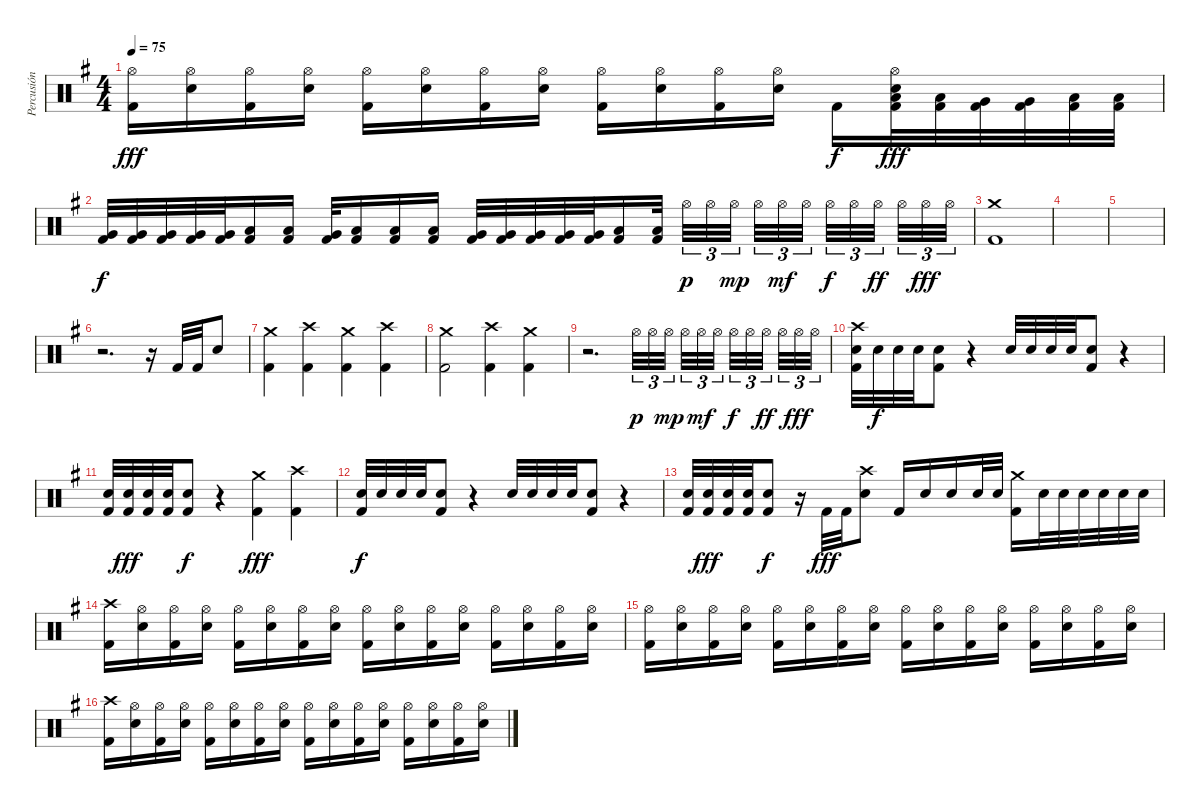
\track ("Percusión" "Percusión") {instrument percussion}
\staff {score}
\articulation defaults
\ts (4 4)
\tempo 75
\clef neutral
\ks g
("Hi-Hat (open)" "Kick (hit) 2").16{dy fff} ("Hi-Hat (open)" "Electric Snare (hit)").16 ("Hi-Hat (open)" "Kick (hit) 2").16 ("Hi-Hat (open)" "Electric Snare (hit)").16 ("Hi-Hat (open)" "Kick (hit) 2").16 ("Hi-Hat (open)" "Electric Snare (hit)").16 ("Hi-Hat (open)" "Kick (hit) 2").16 ("Hi-Hat (open)" "Electric Snare (hit)").16 ("Hi-Hat (open)" "Kick (hit) 2").16 ("Hi-Hat (open)" "Electric Snare (hit)").16 ("Hi-Hat (open)" "Kick (hit) 2").16 ("Hi-Hat (open)" "Electric Snare (hit)").16 "Kick (hit) 2".16{dy f} ("Hi-Hat (open)" "Electric Snare (hit)" "Low Tom (hit)" "Kick (hit) 2").32{dy fff} ("Low Tom (hit)" "Kick (hit) 2").32 ("Very Low Tom (hit)" "Kick (hit) 2").32 ("Very Low Tom (hit)" "Kick (hit) 2").32 ("Low Floor Tom (hit)" "Kick (hit) 2").32 ("Low Floor Tom (hit)" "Kick (hit) 2").32 |
("Very Low Tom (hit)" "Kick (hit) 2").32{dy f} ("Very Low Tom (hit)" "Kick (hit) 2").32 ("Very Low Tom (hit)" "Kick (hit) 2").32 ("Very Low Tom (hit)" "Kick (hit) 2").32 ("Very Low Tom (hit)" "Kick (hit) 2").32 ("Low Floor Tom (hit)" "Kick (hit) 2").16 ("Low Floor Tom (hit)" "Kick (hit) 2").16 ("Very Low Tom (hit)" "Kick (hit) 2").32 ("Low Floor Tom (hit)" "Kick (hit) 2").16 ("Low Floor Tom (hit)" "Kick (hit) 2").16 ("Low Floor Tom (hit)" "Kick (hit) 2").16 ("Very Low Tom (hit)" "Kick (hit) 2").32 ("Very Low Tom (hit)" "Kick (hit) 2").32 ("Very Low Tom (hit)" "Kick (hit) 2").32 ("Very Low Tom (hit)" "Kick (hit) 2").32 ("Very Low Tom (hit)" "Kick (hit) 2").32 ("Low Floor Tom (hit)" "Kick (hit) 2").16 ("Low Floor Tom (hit)" "Kick (hit) 2").32 "Hi-Hat (open)".32{tu (3 2) dy p} "Hi-Hat (open)".32{tu (3 2)} "Hi-Hat (open)".32{tu (3 2) dy mp beam splitsecondary} "Hi-Hat (open)".32{tu (3 2)} "Hi-Hat (open)".32{tu (3 2) dy mf} "Hi-Hat (open)".32{tu (3 2) beam splitsecondary} "Hi-Hat (open)".32{tu (3 2) dy f} "Hi-Hat (open)".32{tu (3 2)} "Hi-Hat (open)".32{tu (3 2) dy ff beam splitsecondary} "Hi-Hat (open)".32{tu (3 2)} "Hi-Hat (open)".32{tu (3 2) dy fff} "Hi-Hat (open)".32{tu (3 2)} |
("Crash medium (hit)" "Kick (hit) 2").1 |
|
|
r.2{d} r.16 "Kick (hit) 2".32 "Kick (hit) 2".32 "Electric Snare (hit)".8 |
("Crash medium (hit)" "Kick (hit) 2").4 ("Crash high (hit)" "Kick (hit) 2").4 ("Crash medium (hit)" "Kick (hit) 2").4 ("Crash high (hit)" "Kick (hit) 2").4 |
("Crash medium (hit)" "Kick (hit) 2").2 ("Crash high (hit)" "Kick (hit) 2").4 ("Crash medium (hit)" "Kick (hit) 2").4 |
r.2{d} "Hi-Hat (open)".32{tu (3 2) dy p} "Hi-Hat (open)".32{tu (3 2)} "Hi-Hat (open)".32{tu (3 2) dy mp beam splitsecondary} "Hi-Hat (open)".32{tu (3 2)} "Hi-Hat (open)".32{tu (3 2) dy mf} "Hi-Hat (open)".32{tu (3 2) beam splitsecondary} "Hi-Hat (open)".32{tu (3 2) dy f} "Hi-Hat (open)".32{tu (3 2)} "Hi-Hat (open)".32{tu (3 2) dy ff beam splitsecondary} "Hi-Hat (open)".32{tu (3 2)} "Hi-Hat (open)".32{tu (3 2) dy fff} "Hi-Hat (open)".32{tu (3 2)} |
("Crash high (hit)" "Electric Snare (hit)" "Kick (hit) 2").32 "Electric Snare (hit)".32{dy f} "Electric Snare (hit)".32 "Electric Snare (hit)".32 ("Electric Snare (hit)" "Kick (hit) 2").8 r.4 "Electric Snare (hit)".32 "Electric Snare (hit)".32 "Electric Snare (hit)".32 "Electric Snare (hit)".32 ("Electric Snare (hit)" "Kick (hit) 2").8 r.4 |
("Electric Snare (hit)" "Kick (hit) 2").32 ("Electric Snare (hit)" "Kick (hit) 2").32{dy fff} ("Electric Snare (hit)" "Kick (hit) 2").32 ("Electric Snare (hit)" "Kick (hit) 2").32 ("Electric Snare (hit)" "Kick (hit) 2").8{dy f} r.4 ("Crash medium (hit)" "Kick (hit) 2").4{dy fff} ("Crash high (hit)" "Kick (hit) 2").4 |
("Electric Snare (hit)" "Kick (hit) 2").32{dy f} "Electric Snare (hit)".32 "Electric Snare (hit)".32 "Electric Snare (hit)".32 ("Electric Snare (hit)" "Kick (hit) 2").8 r.4 "Electric Snare (hit)".32 "Electric Snare (hit)".32 "Electric Snare (hit)".32 "Electric Snare (hit)".32 ("Electric Snare (hit)" "Kick (hit) 2").8 r.4 |
("Electric Snare (hit)" "Kick (hit) 2").32 ("Electric Snare (hit)" "Kick (hit) 2").32{dy fff} ("Electric Snare (hit)" "Kick (hit) 2").32 ("Electric Snare (hit)" "Kick (hit) 2").32 ("Electric Snare (hit)" "Kick (hit) 2").8{dy f} r.16 "Kick (hit) 2".32{dy fff} "Kick (hit) 2".32 ("Crash high (hit)" "Electric Snare (hit)").8 "Kick (hit) 2".16 "Electric Snare (hit)".16 "Electric Snare (hit)".16 "Electric Snare (hit)".32 "Electric Snare (hit)".32 ("Crash medium (hit)" "Kick (hit) 2").16 "Electric Snare (hit)".32 "Electric Snare (hit)".32 "Electric Snare (hit)".32 "Electric Snare (hit)".32 "Electric Snare (hit)".32 "Electric Snare (hit)".32 |
("Crash high (hit)" "Kick (hit) 2").16 ("Hi-Hat (open)" "Electric Snare (hit)").16 ("Hi-Hat (open)" "Kick (hit) 2").16 ("Hi-Hat (open)" "Electric Snare (hit)").16 ("Hi-Hat (open)" "Kick (hit) 2").16 ("Hi-Hat (open)" "Electric Snare (hit)").16 ("Hi-Hat (open)" "Kick (hit) 2").16 ("Hi-Hat (open)" "Electric Snare (hit)").16 ("Hi-Hat (open)" "Kick (hit) 2").16 ("Hi-Hat (open)" "Electric Snare (hit)").16 ("Hi-Hat (open)" "Kick (hit) 2").16 ("Hi-Hat (open)" "Electric Snare (hit)").16 ("Hi-Hat (open)" "Kick (hit) 2").16 ("Hi-Hat (open)" "Electric Snare (hit)").16 ("Hi-Hat (open)" "Kick (hit) 2").16 ("Hi-Hat (open)" "Electric Snare (hit)").16 |
("Hi-Hat (open)" "Kick (hit) 2").16 ("Hi-Hat (open)" "Electric Snare (hit)").16 ("Hi-Hat (open)" "Kick (hit) 2").16 ("Hi-Hat (open)" "Electric Snare (hit)").16 ("Hi-Hat (open)" "Kick (hit) 2").16 ("Hi-Hat (open)" "Electric Snare (hit)").16 ("Hi-Hat (open)" "Kick (hit) 2").16 ("Hi-Hat (open)" "Electric Snare (hit)").16 ("Hi-Hat (open)" "Kick (hit) 2").16 ("Hi-Hat (open)" "Electric Snare (hit)").16 ("Hi-Hat (open)" "Kick (hit) 2").16 ("Hi-Hat (open)" "Electric Snare (hit)").16 ("Hi-Hat (open)" "Kick (hit) 2").16 ("Hi-Hat (open)" "Electric Snare (hit)").16 ("Hi-Hat (open)" "Kick (hit) 2").16 ("Hi-Hat (open)" "Electric Snare (hit)").16 |
("Crash high (hit)" "Kick (hit) 2").16 ("Hi-Hat (open)" "Electric Snare (hit)").16 ("Hi-Hat (open)" "Kick (hit) 2").16 ("Hi-Hat (open)" "Electric Snare (hit)").16 ("Hi-Hat (open)" "Kick (hit) 2").16 ("Hi-Hat (open)" "Electric Snare (hit)").16 ("Hi-Hat (open)" "Kick (hit) 2").16 ("Hi-Hat (open)" "Electric Snare (hit)").16 ("Hi-Hat (open)" "Kick (hit) 2").16 ("Hi-Hat (open)" "Electric Snare (hit)").16 ("Hi-Hat (open)" "Kick (hit) 2").16 ("Hi-Hat (open)" "Electric Snare (hit)").16 ("Hi-Hat (open)" "Kick (hit) 2").16 ("Hi-Hat (open)" "Electric Snare (hit)").16 ("Hi-Hat (open)" "Kick (hit) 2").16 ("Hi-Hat (open)" "Electric Snare (hit)").16
